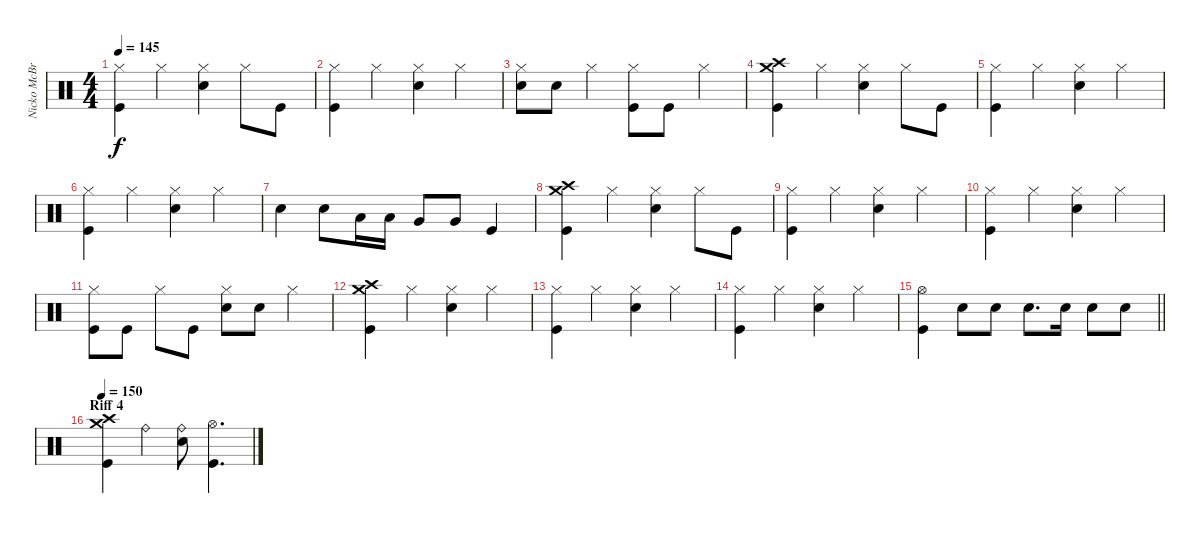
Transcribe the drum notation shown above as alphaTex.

\track ("Nicko McBrain" "Nicko McBr") {instrument percussion}
\staff {score}
\articulation defaults
\ts (4 4)
\tempo 145
\clef neutral
\ks c
("Hi-Hat (closed)" "Kick (hit)").4{dy f} "Hi-Hat (closed)".4 ("Hi-Hat (closed)" "Snare (hit) 2").4 "Hi-Hat (closed)".8 "Kick (hit)".8 |
("Hi-Hat (closed)" "Kick (hit)").4 "Hi-Hat (closed)".4 ("Hi-Hat (closed)" "Snare (hit) 2").4 "Hi-Hat (closed)".4 |
("Hi-Hat (closed)" "Snare (hit) 2").8 "Snare (hit) 2".8 "Hi-Hat (closed)".4 ("Hi-Hat (closed)" "Kick (hit)").8 "Kick (hit)".8 "Hi-Hat (closed)".4 |
("Crash medium (hit)" "Crash high (hit)" "Kick (hit)").4 "Hi-Hat (closed)".4 ("Hi-Hat (closed)" "Snare (hit) 2").4 "Hi-Hat (closed)".8 "Kick (hit)".8 |
("Hi-Hat (closed)" "Kick (hit)").4 "Hi-Hat (closed)".4 ("Hi-Hat (closed)" "Snare (hit) 2").4 "Hi-Hat (closed)".4 |
("Hi-Hat (closed)" "Kick (hit)").4 "Hi-Hat (closed)".4 ("Hi-Hat (closed)" "Snare (hit) 2").4 "Hi-Hat (closed)".4 |
"Snare (hit) 2".4 "Snare (hit) 2".8 "Low Tom (hit)".16 "Low Tom (hit)".16 "Very Low Tom (hit)".8 "Very Low Tom (hit)".8 "Kick (hit)".4 |
("Crash medium (hit)" "Crash high (hit)" "Kick (hit)").4 "Hi-Hat (closed)".4 ("Hi-Hat (closed)" "Snare (hit) 2").4 "Hi-Hat (closed)".8 "Kick (hit)".8 |
("Hi-Hat (closed)" "Kick (hit)").4 "Hi-Hat (closed)".4 ("Hi-Hat (closed)" "Snare (hit) 2").4 "Hi-Hat (closed)".4 |
("Hi-Hat (closed)" "Kick (hit)").4 "Hi-Hat (closed)".4 ("Hi-Hat (closed)" "Snare (hit) 2").4 "Hi-Hat (closed)".4 |
("Hi-Hat (closed)" "Kick (hit)").8 "Kick (hit)".8 "Hi-Hat (closed)".8 "Kick (hit)".8 ("Hi-Hat (closed)" "Snare (hit) 2").8 "Snare (hit) 2".8 "Hi-Hat (closed)".4 |
("Crash medium (hit)" "Crash high (hit)" "Kick (hit)").4 "Hi-Hat (closed)".4 ("Hi-Hat (closed)" "Snare (hit) 2").4 "Hi-Hat (closed)".4 |
("Hi-Hat (closed)" "Kick (hit)").4 "Hi-Hat (closed)".4 ("Hi-Hat (closed)" "Snare (hit) 2").4 "Hi-Hat (closed)".4 |
("Hi-Hat (closed)" "Kick (hit)").4 "Hi-Hat (closed)".4 ("Hi-Hat (closed)" "Snare (hit) 2").4 "Hi-Hat (closed)".4 |
\barLineRight lightlight
("Hi-Hat (open)" "Kick (hit)").4 "Snare (hit) 2".8 "Snare (hit) 2".8 "Snare (hit) 2".8{d} "Snare (hit) 2".16 "Snare (hit) 2".8 "Snare (hit) 2".8 |
\section ("" "Riff 4")
\tempo 150
("Crash medium (hit)" "Crash high (hit)" "Kick (hit)").4 "Ride (bell)".4 ("Ride (bell)" "Snare (hit) 2").8 ("Hi-Hat (open)" "Kick (hit)").4{d}
